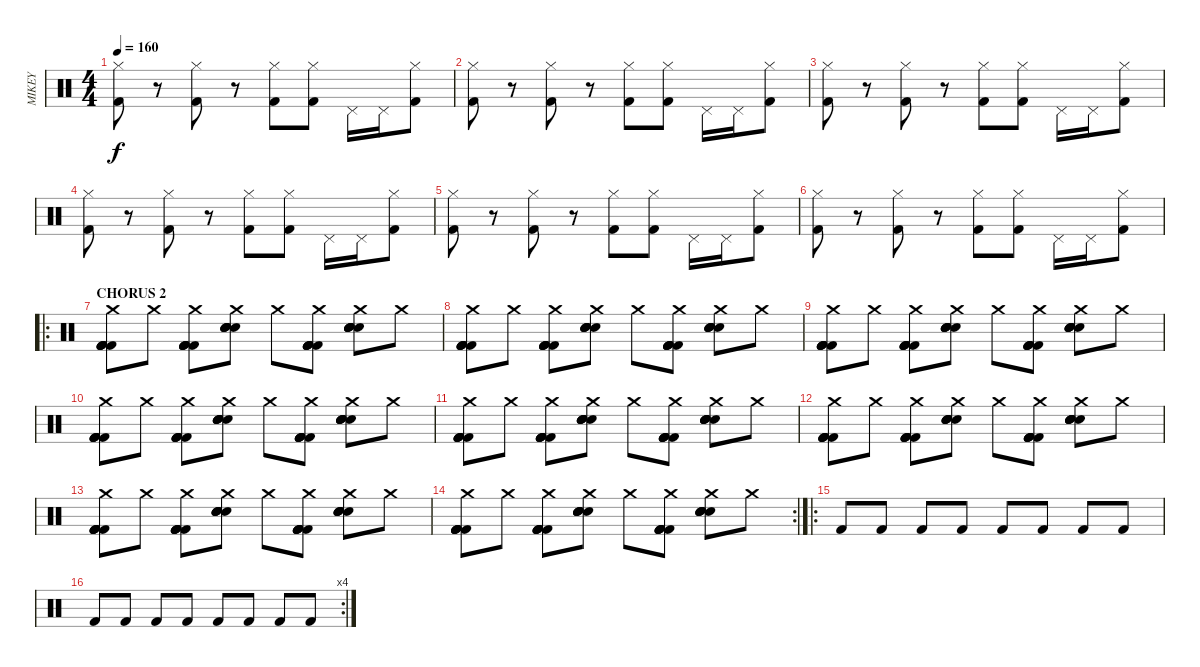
\track ("MIKEY" "MIKEY") {instrument percussion}
\staff {score}
\articulation defaults
\ts (4 4)
\tempo 160
\clef neutral
\ks c
("Kick (hit) 2" "Hi-Hat (closed)").8{dy f} r.8 ("Kick (hit) 2" "Hi-Hat (closed)").8 r.8 ("Kick (hit) 2" "Hi-Hat (closed)").8 ("Kick (hit) 2" "Hi-Hat (closed)").8 "Pedal Hi-Hat (hit)".16 "Pedal Hi-Hat (hit)".16 ("Kick (hit) 2" "Hi-Hat (closed)").8 |
("Kick (hit) 2" "Hi-Hat (closed)").8 r.8 ("Kick (hit) 2" "Hi-Hat (closed)").8 r.8 ("Kick (hit) 2" "Hi-Hat (closed)").8 ("Kick (hit) 2" "Hi-Hat (closed)").8 "Pedal Hi-Hat (hit)".16 "Pedal Hi-Hat (hit)".16 ("Kick (hit) 2" "Hi-Hat (closed)").8 |
("Kick (hit) 2" "Hi-Hat (closed)").8 r.8 ("Kick (hit) 2" "Hi-Hat (closed)").8 r.8 ("Kick (hit) 2" "Hi-Hat (closed)").8 ("Kick (hit) 2" "Hi-Hat (closed)").8 "Pedal Hi-Hat (hit)".16 "Pedal Hi-Hat (hit)".16 ("Kick (hit) 2" "Hi-Hat (closed)").8 |
("Kick (hit) 2" "Hi-Hat (closed)").8 r.8 ("Kick (hit) 2" "Hi-Hat (closed)").8 r.8 ("Kick (hit) 2" "Hi-Hat (closed)").8 ("Kick (hit) 2" "Hi-Hat (closed)").8 "Pedal Hi-Hat (hit)".16 "Pedal Hi-Hat (hit)".16 ("Kick (hit) 2" "Hi-Hat (closed)").8 |
("Kick (hit) 2" "Hi-Hat (closed)").8 r.8 ("Kick (hit) 2" "Hi-Hat (closed)").8 r.8 ("Kick (hit) 2" "Hi-Hat (closed)").8 ("Kick (hit) 2" "Hi-Hat (closed)").8 "Pedal Hi-Hat (hit)".16 "Pedal Hi-Hat (hit)".16 ("Kick (hit) 2" "Hi-Hat (closed)").8 |
("Kick (hit) 2" "Hi-Hat (closed)").8 r.8 ("Kick (hit) 2" "Hi-Hat (closed)").8 r.8 ("Kick (hit) 2" "Hi-Hat (closed)").8 ("Kick (hit) 2" "Hi-Hat (closed)").8 "Pedal Hi-Hat (hit)".16 "Pedal Hi-Hat (hit)".16 ("Kick (hit) 2" "Hi-Hat (closed)").8 |
\ro
\section ("" "CHORUS 2")
("Kick (hit) 2" "Kick (hit) 2" "Kick (hit) 2" "Kick (hit) 2" "Kick (hit) 2" "Crash medium (hit)").8 "Crash medium (hit)".8 ("Kick (hit) 2" "Kick (hit) 2" "Kick (hit) 2" "Kick (hit) 2" "Kick (hit) 2" "Crash medium (hit)").8 ("Snare (hit) 2" "Snare (hit) 2" "Snare (hit) 2" "Snare (hit) 2" "Snare (hit) 2" "Crash medium (hit)").8 "Crash medium (hit)".8 ("Kick (hit) 2" "Kick (hit) 2" "Kick (hit) 2" "Kick (hit) 2" "Kick (hit) 2" "Crash medium (hit)").8 ("Snare (hit) 2" "Snare (hit) 2" "Snare (hit) 2" "Snare (hit) 2" "Snare (hit) 2" "Crash medium (hit)").8 "Crash medium (hit)".8 |
("Kick (hit) 2" "Kick (hit) 2" "Kick (hit) 2" "Kick (hit) 2" "Kick (hit) 2" "Crash medium (hit)").8 "Crash medium (hit)".8 ("Kick (hit) 2" "Kick (hit) 2" "Kick (hit) 2" "Kick (hit) 2" "Kick (hit) 2" "Crash medium (hit)").8 ("Snare (hit) 2" "Snare (hit) 2" "Snare (hit) 2" "Snare (hit) 2" "Snare (hit) 2" "Crash medium (hit)").8 "Crash medium (hit)".8 ("Kick (hit) 2" "Kick (hit) 2" "Kick (hit) 2" "Kick (hit) 2" "Kick (hit) 2" "Crash medium (hit)").8 ("Snare (hit) 2" "Snare (hit) 2" "Snare (hit) 2" "Snare (hit) 2" "Snare (hit) 2" "Crash medium (hit)").8 "Crash medium (hit)".8 |
("Kick (hit) 2" "Kick (hit) 2" "Kick (hit) 2" "Kick (hit) 2" "Kick (hit) 2" "Crash medium (hit)").8 "Crash medium (hit)".8 ("Kick (hit) 2" "Kick (hit) 2" "Kick (hit) 2" "Kick (hit) 2" "Kick (hit) 2" "Crash medium (hit)").8 ("Snare (hit) 2" "Snare (hit) 2" "Snare (hit) 2" "Snare (hit) 2" "Snare (hit) 2" "Crash medium (hit)").8 "Crash medium (hit)".8 ("Kick (hit) 2" "Kick (hit) 2" "Kick (hit) 2" "Kick (hit) 2" "Kick (hit) 2" "Crash medium (hit)").8 ("Snare (hit) 2" "Snare (hit) 2" "Snare (hit) 2" "Snare (hit) 2" "Snare (hit) 2" "Crash medium (hit)").8 "Crash medium (hit)".8 |
("Kick (hit) 2" "Kick (hit) 2" "Kick (hit) 2" "Kick (hit) 2" "Kick (hit) 2" "Crash medium (hit)").8 "Crash medium (hit)".8 ("Kick (hit) 2" "Kick (hit) 2" "Kick (hit) 2" "Kick (hit) 2" "Kick (hit) 2" "Crash medium (hit)").8 ("Snare (hit) 2" "Snare (hit) 2" "Snare (hit) 2" "Snare (hit) 2" "Snare (hit) 2" "Crash medium (hit)").8 "Crash medium (hit)".8 ("Kick (hit) 2" "Kick (hit) 2" "Kick (hit) 2" "Kick (hit) 2" "Kick (hit) 2" "Crash medium (hit)").8 ("Snare (hit) 2" "Snare (hit) 2" "Snare (hit) 2" "Snare (hit) 2" "Snare (hit) 2" "Crash medium (hit)").8 "Crash medium (hit)".8 |
("Kick (hit) 2" "Kick (hit) 2" "Kick (hit) 2" "Kick (hit) 2" "Kick (hit) 2" "Crash medium (hit)").8 "Crash medium (hit)".8 ("Kick (hit) 2" "Kick (hit) 2" "Kick (hit) 2" "Kick (hit) 2" "Kick (hit) 2" "Crash medium (hit)").8 ("Snare (hit) 2" "Snare (hit) 2" "Snare (hit) 2" "Snare (hit) 2" "Snare (hit) 2" "Crash medium (hit)").8 "Crash medium (hit)".8 ("Kick (hit) 2" "Kick (hit) 2" "Kick (hit) 2" "Kick (hit) 2" "Kick (hit) 2" "Crash medium (hit)").8 ("Snare (hit) 2" "Snare (hit) 2" "Snare (hit) 2" "Snare (hit) 2" "Snare (hit) 2" "Crash medium (hit)").8 "Crash medium (hit)".8 |
("Kick (hit) 2" "Kick (hit) 2" "Kick (hit) 2" "Kick (hit) 2" "Kick (hit) 2" "Crash medium (hit)").8 "Crash medium (hit)".8 ("Kick (hit) 2" "Kick (hit) 2" "Kick (hit) 2" "Kick (hit) 2" "Kick (hit) 2" "Crash medium (hit)").8 ("Snare (hit) 2" "Snare (hit) 2" "Snare (hit) 2" "Snare (hit) 2" "Snare (hit) 2" "Crash medium (hit)").8 "Crash medium (hit)".8 ("Kick (hit) 2" "Kick (hit) 2" "Kick (hit) 2" "Kick (hit) 2" "Kick (hit) 2" "Crash medium (hit)").8 ("Snare (hit) 2" "Snare (hit) 2" "Snare (hit) 2" "Snare (hit) 2" "Snare (hit) 2" "Crash medium (hit)").8 "Crash medium (hit)".8 |
("Kick (hit) 2" "Kick (hit) 2" "Kick (hit) 2" "Kick (hit) 2" "Kick (hit) 2" "Crash medium (hit)").8 "Crash medium (hit)".8 ("Kick (hit) 2" "Kick (hit) 2" "Kick (hit) 2" "Kick (hit) 2" "Kick (hit) 2" "Crash medium (hit)").8 ("Snare (hit) 2" "Snare (hit) 2" "Snare (hit) 2" "Snare (hit) 2" "Snare (hit) 2" "Crash medium (hit)").8 "Crash medium (hit)".8 ("Kick (hit) 2" "Kick (hit) 2" "Kick (hit) 2" "Kick (hit) 2" "Kick (hit) 2" "Crash medium (hit)").8 ("Snare (hit) 2" "Snare (hit) 2" "Snare (hit) 2" "Snare (hit) 2" "Snare (hit) 2" "Crash medium (hit)").8 "Crash medium (hit)".8 |
\rc 2
("Kick (hit) 2" "Kick (hit) 2" "Kick (hit) 2" "Kick (hit) 2" "Kick (hit) 2" "Crash medium (hit)").8 "Crash medium (hit)".8 ("Kick (hit) 2" "Kick (hit) 2" "Kick (hit) 2" "Kick (hit) 2" "Kick (hit) 2" "Crash medium (hit)").8 ("Snare (hit) 2" "Snare (hit) 2" "Snare (hit) 2" "Snare (hit) 2" "Snare (hit) 2" "Crash medium (hit)").8 "Crash medium (hit)".8 ("Kick (hit) 2" "Kick (hit) 2" "Kick (hit) 2" "Kick (hit) 2" "Kick (hit) 2" "Crash medium (hit)").8 ("Snare (hit) 2" "Snare (hit) 2" "Snare (hit) 2" "Snare (hit) 2" "Snare (hit) 2" "Crash medium (hit)").8 "Crash medium (hit)".8 |
\ro "Kick (hit) 2".8 "Kick (hit) 2".8 "Kick (hit) 2".8 "Kick (hit) 2".8 "Kick (hit) 2".8 "Kick (hit) 2".8 "Kick (hit) 2".8 "Kick (hit) 2".8
|
\rc 4 "Kick (hit) 2".8 "Kick (hit) 2".8 "Kick (hit) 2".8 "Kick (hit) 2".8 "Kick (hit) 2".8 "Kick (hit) 2".8 "Kick (hit) 2".8 "Kick (hit) 2".8
